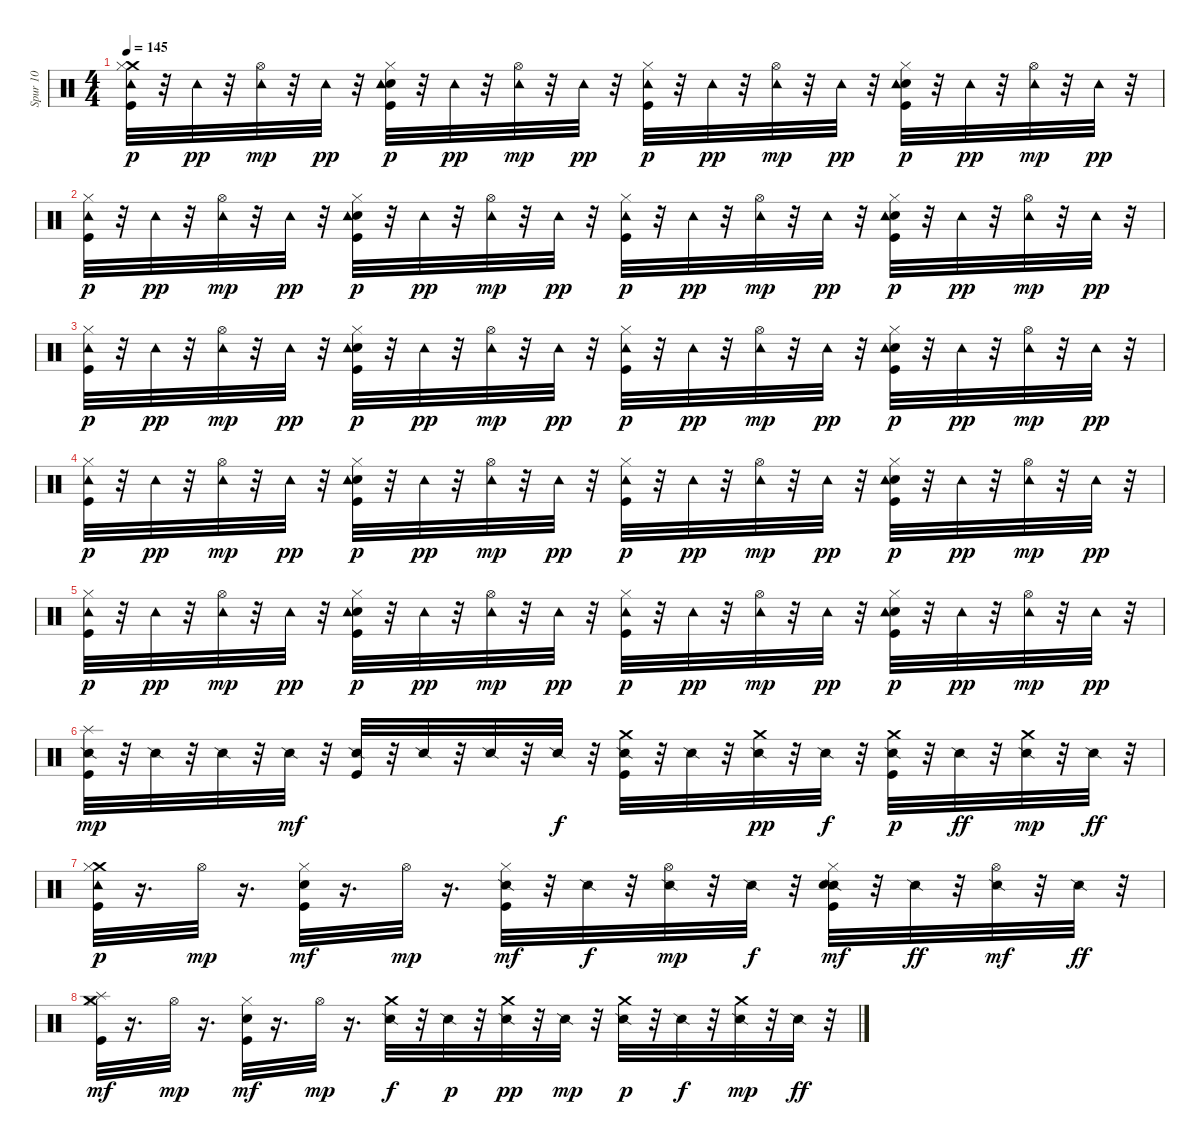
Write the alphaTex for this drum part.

\track ("Spur 10" "Spur 10") {instrument percussion}
\staff {score}
\articulation defaults
\ts (4 4)
\tempo 145
\clef neutral
\ks c
("Crash medium (hit)" "Kick (hit)" "Hi-Hat (closed)" "Tambourine (hit)").32{dy p balance 8} r.32 "Tambourine (hit)".32{dy pp} r.32 ("Hi-Hat (open)" "Tambourine (hit)").32{dy mp} r.32 "Tambourine (hit)".32{dy pp} r.32 ("Kick (hit)" "Snare (hit) 2" "Hi-Hat (closed)" "Tambourine (hit)").32{dy p} r.32 "Tambourine (hit)".32{dy pp} r.32 ("Hi-Hat (open)" "Tambourine (hit)").32{dy mp} r.32 "Tambourine (hit)".32{dy pp} r.32 ("Kick (hit)" "Hi-Hat (closed)" "Tambourine (hit)").32{dy p} r.32 "Tambourine (hit)".32{dy pp} r.32 ("Hi-Hat (open)" "Tambourine (hit)").32{dy mp} r.32 "Tambourine (hit)".32{dy pp} r.32 ("Kick (hit)" "Snare (hit) 2" "Hi-Hat (closed)" "Tambourine (hit)").32{dy p} r.32 "Tambourine (hit)".32{dy pp} r.32 ("Hi-Hat (open)" "Tambourine (hit)").32{dy mp} r.32 "Tambourine (hit)".32{dy pp} r.32 |
("Kick (hit)" "Hi-Hat (closed)" "Tambourine (hit)").32{dy p} r.32 "Tambourine (hit)".32{dy pp} r.32 ("Hi-Hat (open)" "Tambourine (hit)").32{dy mp} r.32 "Tambourine (hit)".32{dy pp} r.32 ("Kick (hit)" "Snare (hit) 2" "Hi-Hat (closed)" "Tambourine (hit)").32{dy p} r.32 "Tambourine (hit)".32{dy pp} r.32 ("Hi-Hat (open)" "Tambourine (hit)").32{dy mp} r.32 "Tambourine (hit)".32{dy pp} r.32 ("Kick (hit)" "Hi-Hat (closed)" "Tambourine (hit)").32{dy p} r.32 "Tambourine (hit)".32{dy pp} r.32 ("Hi-Hat (open)" "Tambourine (hit)").32{dy mp} r.32 "Tambourine (hit)".32{dy pp} r.32 ("Kick (hit)" "Snare (hit) 2" "Hi-Hat (closed)" "Tambourine (hit)").32{dy p} r.32 "Tambourine (hit)".32{dy pp} r.32 ("Hi-Hat (open)" "Tambourine (hit)").32{dy mp} r.32 "Tambourine (hit)".32{dy pp} r.32 |
("Kick (hit)" "Hi-Hat (closed)" "Tambourine (hit)").32{dy p} r.32 "Tambourine (hit)".32{dy pp} r.32 ("Hi-Hat (open)" "Tambourine (hit)").32{dy mp} r.32 "Tambourine (hit)".32{dy pp} r.32 ("Kick (hit)" "Snare (hit) 2" "Hi-Hat (closed)" "Tambourine (hit)").32{dy p} r.32 "Tambourine (hit)".32{dy pp} r.32 ("Hi-Hat (open)" "Tambourine (hit)").32{dy mp} r.32 "Tambourine (hit)".32{dy pp} r.32 ("Kick (hit)" "Hi-Hat (closed)" "Tambourine (hit)").32{dy p} r.32 "Tambourine (hit)".32{dy pp} r.32 ("Hi-Hat (open)" "Tambourine (hit)").32{dy mp} r.32 "Tambourine (hit)".32{dy pp} r.32 ("Kick (hit)" "Snare (hit) 2" "Hi-Hat (closed)" "Tambourine (hit)").32{dy p} r.32 "Tambourine (hit)".32{dy pp} r.32 ("Hi-Hat (open)" "Tambourine (hit)").32{dy mp} r.32 "Tambourine (hit)".32{dy pp} r.32 |
("Kick (hit)" "Hi-Hat (closed)" "Tambourine (hit)").32{dy p} r.32 "Tambourine (hit)".32{dy pp} r.32 ("Hi-Hat (open)" "Tambourine (hit)").32{dy mp} r.32 "Tambourine (hit)".32{dy pp} r.32 ("Kick (hit)" "Snare (hit) 2" "Hi-Hat (closed)" "Tambourine (hit)").32{dy p} r.32 "Tambourine (hit)".32{dy pp} r.32 ("Hi-Hat (open)" "Tambourine (hit)").32{dy mp} r.32 "Tambourine (hit)".32{dy pp} r.32 ("Kick (hit)" "Hi-Hat (closed)" "Tambourine (hit)").32{dy p} r.32 "Tambourine (hit)".32{dy pp} r.32 ("Hi-Hat (open)" "Tambourine (hit)").32{dy mp} r.32 "Tambourine (hit)".32{dy pp} r.32 ("Kick (hit)" "Snare (hit) 2" "Hi-Hat (closed)" "Tambourine (hit)").32{dy p} r.32 "Tambourine (hit)".32{dy pp} r.32 ("Hi-Hat (open)" "Tambourine (hit)").32{dy mp} r.32 "Tambourine (hit)".32{dy pp} r.32 |
("Kick (hit)" "Hi-Hat (closed)" "Tambourine (hit)").32{dy p} r.32 "Tambourine (hit)".32{dy pp} r.32 ("Hi-Hat (open)" "Tambourine (hit)").32{dy mp} r.32 "Tambourine (hit)".32{dy pp} r.32 ("Kick (hit)" "Snare (hit) 2" "Hi-Hat (closed)" "Tambourine (hit)").32{dy p} r.32 "Tambourine (hit)".32{dy pp} r.32 ("Hi-Hat (open)" "Tambourine (hit)").32{dy mp} r.32 "Tambourine (hit)".32{dy pp} r.32 ("Kick (hit)" "Hi-Hat (closed)" "Tambourine (hit)").32{dy p} r.32 "Tambourine (hit)".32{dy pp} r.32 ("Hi-Hat (open)" "Tambourine (hit)").32{dy mp} r.32 "Tambourine (hit)".32{dy pp} r.32 ("Kick (hit)" "Snare (hit) 2" "Hi-Hat (closed)" "Tambourine (hit)").32{dy p} r.32 "Tambourine (hit)".32{dy pp} r.32 ("Hi-Hat (open)" "Tambourine (hit)").32{dy mp} r.32 "Tambourine (hit)".32{dy pp} r.32 |
("Snare (side stick) 2" "Kick (hit)" "Splash (hit)").32{dy mp} r.32 "Snare (side stick) 2".32 r.32 "Snare (side stick) 2".32 r.32 "Snare (side stick) 2".32{dy mf} r.32 ("Snare (side stick) 2" "Kick (hit)").32 r.32 "Snare (side stick) 2".32 r.32 "Snare (side stick) 2".32 r.32 "Snare (side stick) 2".32{dy f} r.32 ("Snare (side stick) 2" "Kick (hit)" "Crash medium (hit)").32{balance 10} r.32 "Snare (side stick) 2".32 r.32 ("Snare (side stick) 2" "Crash medium (hit)").32{dy pp balance 14} r.32 "Snare (side stick) 2".32{dy f} r.32 ("Snare (side stick) 2" "Kick (hit)" "Crash medium (hit)").32{dy p balance 7} r.32 "Snare (side stick) 2".32{dy ff} r.32 ("Snare (side stick) 2" "Crash medium (hit)").32{dy mp balance 0} r.32 "Snare (side stick) 2".32{dy ff} r.32 |
("Crash medium (hit)" "Kick (hit)" "Hi-Hat (closed)" "Tambourine (hit)").32{dy p balance 8} r.16{d} "Hi-Hat (open)".32{dy mp} r.16{d} ("Kick (hit)" "Snare (hit) 2" "Hi-Hat (closed)").32{dy mf} r.16{d} "Hi-Hat (open)".32{dy mp} r.16{d} ("Snare (side stick) 2" "Kick (hit)" "Hi-Hat (closed)").32{dy mf} r.32 "Snare (side stick) 2".32{dy f} r.32 ("Snare (side stick) 2" "Hi-Hat (open)").32{dy mp balance 11} r.32 "Snare (side stick) 2".32{dy f} r.32 ("Snare (side stick) 2" "Kick (hit)" "Snare (hit) 2" "Hi-Hat (closed)").32{dy mf balance 8} r.32 "Snare (side stick) 2".32{dy ff} r.32 ("Snare (side stick) 2" "Hi-Hat (open)").32{dy mf balance 4} r.32 "Snare (side stick) 2".32{dy ff} r.32 |
("Crash medium (hit)" "Kick (hit)" "Hi-Hat (closed)" "Splash (hit)").32{dy mf balance 8} r.16{d} "Hi-Hat (open)".32{dy mp} r.16{d} ("Kick (hit)" "Snare (hit) 2" "Hi-Hat (closed)").32{dy mf} r.16{d} "Hi-Hat (open)".32{dy mp} r.16{d} ("Snare (side stick) 2" "Crash medium (hit)").32{dy f balance 12} r.32 "Snare (side stick) 2".32{dy p} r.32 ("Snare (side stick) 2" "Crash medium (hit)").32{dy pp balance 10} r.32 "Snare (side stick) 2".32{dy mp} r.32 ("Snare (side stick) 2" "Crash medium (hit)").32{dy p balance 6} r.32 "Snare (side stick) 2".32{dy f} r.32 ("Snare (side stick) 2" "Crash medium (hit)").32{dy mp balance 2} r.32 "Snare (side stick) 2".32{dy ff} r.32
